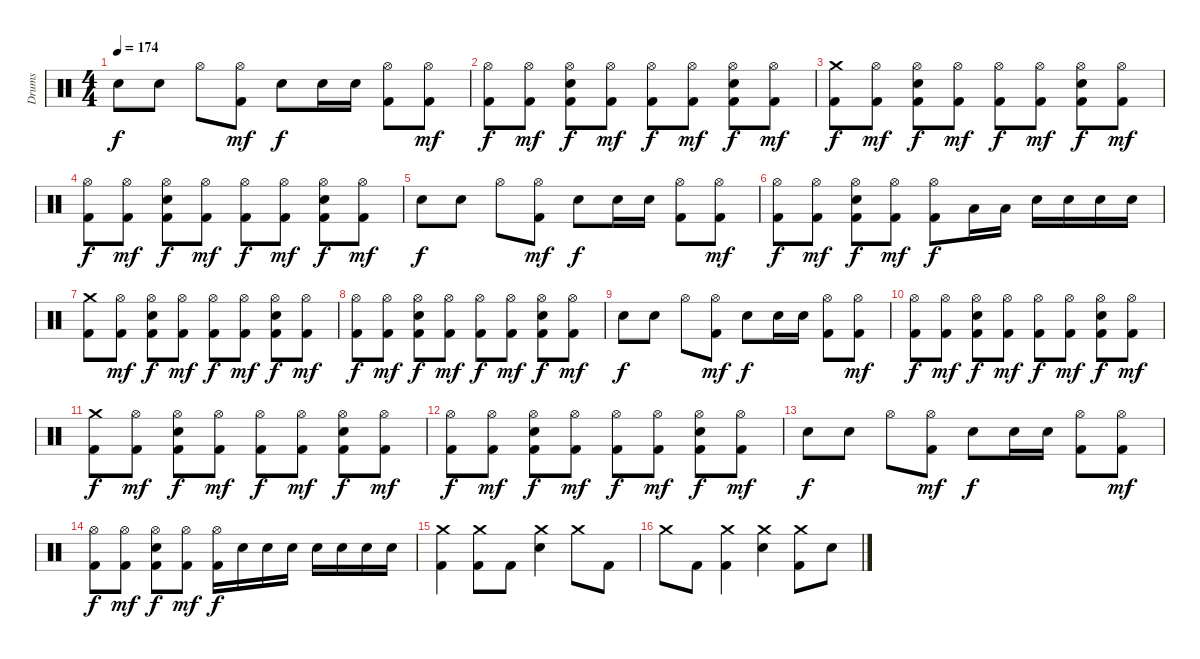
\track ("Drums" "Drums") {instrument percussion}
\staff {score}
\articulation defaults
\ts (4 4)
\tempo 174
\clef neutral
\ks c "Electric Snare (hit)".8{dy f} "Electric Snare (hit)".8 "Hi-Hat (open)".8
("Hi-Hat (open)" "Kick (hit) 2").8{dy mf} "Electric Snare (hit)".8{dy f} "Electric Snare (hit)".16 "Electric Snare (hit)".16 ("Hi-Hat (open)" "Kick (hit) 2").8 ("Hi-Hat (open)" "Kick (hit) 2").8{dy mf} |
("Hi-Hat (open)" "Kick (hit) 2").8{dy f} ("Hi-Hat (open)" "Kick (hit) 2").8{dy mf} ("Hi-Hat (open)" "Electric Snare (hit)" "Kick (hit) 2").8{dy f} ("Hi-Hat (open)" "Kick (hit) 2").8{dy mf} ("Hi-Hat (open)" "Kick (hit) 2").8{dy f} ("Hi-Hat (open)" "Kick (hit) 2").8{dy mf} ("Hi-Hat (open)" "Electric Snare (hit)" "Kick (hit) 2").8{dy f} ("Hi-Hat (open)" "Kick (hit) 2").8{dy mf} |
("Crash medium (hit)" "Kick (hit) 2").8{dy f} ("Hi-Hat (open)" "Kick (hit) 2").8{dy mf} ("Hi-Hat (open)" "Electric Snare (hit)" "Kick (hit) 2").8{dy f} ("Hi-Hat (open)" "Kick (hit) 2").8{dy mf} ("Hi-Hat (open)" "Kick (hit) 2").8{dy f} ("Hi-Hat (open)" "Kick (hit) 2").8{dy mf} ("Hi-Hat (open)" "Electric Snare (hit)" "Kick (hit) 2").8{dy f} ("Hi-Hat (open)" "Kick (hit) 2").8{dy mf} |
("Hi-Hat (open)" "Kick (hit) 2").8{dy f} ("Hi-Hat (open)" "Kick (hit) 2").8{dy mf} ("Hi-Hat (open)" "Electric Snare (hit)" "Kick (hit) 2").8{dy f} ("Hi-Hat (open)" "Kick (hit) 2").8{dy mf} ("Hi-Hat (open)" "Kick (hit) 2").8{dy f} ("Hi-Hat (open)" "Kick (hit) 2").8{dy mf} ("Hi-Hat (open)" "Electric Snare (hit)" "Kick (hit) 2").8{dy f} ("Hi-Hat (open)" "Kick (hit) 2").8{dy mf} |
"Electric Snare (hit)".8{dy f} "Electric Snare (hit)".8 "Hi-Hat (open)".8 ("Hi-Hat (open)" "Kick (hit) 2").8{dy mf} "Electric Snare (hit)".8{dy f} "Electric Snare (hit)".16 "Electric Snare (hit)".16 ("Hi-Hat (open)" "Kick (hit) 2").8 ("Hi-Hat (open)" "Kick (hit) 2").8{dy mf} |
("Hi-Hat (open)" "Kick (hit) 2").8{dy f} ("Hi-Hat (open)" "Kick (hit) 2").8{dy mf} ("Hi-Hat (open)" "Electric Snare (hit)" "Kick (hit) 2").8{dy f} ("Hi-Hat (open)" "Kick (hit) 2").8{dy mf} ("Hi-Hat (open)" "Kick (hit) 2").8{dy f} "Low Tom (hit)".16 "Low Tom (hit)".16 "Electric Snare (hit)".16 "Electric Snare (hit)".16 "Electric Snare (hit)".16 "Electric Snare (hit)".16 |
("Crash medium (hit)" "Kick (hit) 2").8 ("Hi-Hat (open)" "Kick (hit) 2").8{dy mf} ("Hi-Hat (open)" "Electric Snare (hit)" "Kick (hit) 2").8{dy f} ("Hi-Hat (open)" "Kick (hit) 2").8{dy mf} ("Hi-Hat (open)" "Kick (hit) 2").8{dy f} ("Hi-Hat (open)" "Kick (hit) 2").8{dy mf} ("Hi-Hat (open)" "Electric Snare (hit)" "Kick (hit) 2").8{dy f} ("Hi-Hat (open)" "Kick (hit) 2").8{dy mf} |
("Hi-Hat (open)" "Kick (hit) 2").8{dy f} ("Hi-Hat (open)" "Kick (hit) 2").8{dy mf} ("Hi-Hat (open)" "Electric Snare (hit)" "Kick (hit) 2").8{dy f} ("Hi-Hat (open)" "Kick (hit) 2").8{dy mf} ("Hi-Hat (open)" "Kick (hit) 2").8{dy f} ("Hi-Hat (open)" "Kick (hit) 2").8{dy mf} ("Hi-Hat (open)" "Electric Snare (hit)" "Kick (hit) 2").8{dy f} ("Hi-Hat (open)" "Kick (hit) 2").8{dy mf} |
"Electric Snare (hit)".8{dy f} "Electric Snare (hit)".8 "Hi-Hat (open)".8 ("Hi-Hat (open)" "Kick (hit) 2").8{dy mf} "Electric Snare (hit)".8{dy f} "Electric Snare (hit)".16 "Electric Snare (hit)".16 ("Hi-Hat (open)" "Kick (hit) 2").8 ("Hi-Hat (open)" "Kick (hit) 2").8{dy mf} |
("Hi-Hat (open)" "Kick (hit) 2").8{dy f} ("Hi-Hat (open)" "Kick (hit) 2").8{dy mf} ("Hi-Hat (open)" "Electric Snare (hit)" "Kick (hit) 2").8{dy f} ("Hi-Hat (open)" "Kick (hit) 2").8{dy mf} ("Hi-Hat (open)" "Kick (hit) 2").8{dy f} ("Hi-Hat (open)" "Kick (hit) 2").8{dy mf} ("Hi-Hat (open)" "Electric Snare (hit)" "Kick (hit) 2").8{dy f} ("Hi-Hat (open)" "Kick (hit) 2").8{dy mf} |
("Crash medium (hit)" "Kick (hit) 2").8{dy f} ("Hi-Hat (open)" "Kick (hit) 2").8{dy mf} ("Hi-Hat (open)" "Electric Snare (hit)" "Kick (hit) 2").8{dy f} ("Hi-Hat (open)" "Kick (hit) 2").8{dy mf} ("Hi-Hat (open)" "Kick (hit) 2").8{dy f} ("Hi-Hat (open)" "Kick (hit) 2").8{dy mf} ("Hi-Hat (open)" "Electric Snare (hit)" "Kick (hit) 2").8{dy f} ("Hi-Hat (open)" "Kick (hit) 2").8{dy mf} |
("Hi-Hat (open)" "Kick (hit) 2").8{dy f} ("Hi-Hat (open)" "Kick (hit) 2").8{dy mf} ("Hi-Hat (open)" "Electric Snare (hit)" "Kick (hit) 2").8{dy f} ("Hi-Hat (open)" "Kick (hit) 2").8{dy mf} ("Hi-Hat (open)" "Kick (hit) 2").8{dy f} ("Hi-Hat (open)" "Kick (hit) 2").8{dy mf} ("Hi-Hat (open)" "Electric Snare (hit)" "Kick (hit) 2").8{dy f} ("Hi-Hat (open)" "Kick (hit) 2").8{dy mf} |
"Electric Snare (hit)".8{dy f} "Electric Snare (hit)".8 "Hi-Hat (open)".8 ("Hi-Hat (open)" "Kick (hit) 2").8{dy mf} "Electric Snare (hit)".8{dy f} "Electric Snare (hit)".16 "Electric Snare (hit)".16 ("Hi-Hat (open)" "Kick (hit) 2").8 ("Hi-Hat (open)" "Kick (hit) 2").8{dy mf} |
("Hi-Hat (open)" "Kick (hit) 2").8{dy f} ("Hi-Hat (open)" "Kick (hit) 2").8{dy mf} ("Hi-Hat (open)" "Electric Snare (hit)" "Kick (hit) 2").8{dy f} ("Hi-Hat (open)" "Kick (hit) 2").8{dy mf} ("Hi-Hat (open)" "Kick (hit) 2").16{dy f} "Electric Snare (hit)".16 "Electric Snare (hit)".16 "Electric Snare (hit)".16 "Electric Snare (hit)".16 "Electric Snare (hit)".16 "Electric Snare (hit)".16 "Electric Snare (hit)".16 |
("Crash medium (hit)" "Kick (hit) 2").4 ("Crash medium (hit)" "Kick (hit) 2").8 "Kick (hit) 2".8 ("Crash medium (hit)" "Electric Snare (hit)").4 "Crash medium (hit)".8 "Kick (hit) 2".8 |
"Crash medium (hit)".8 "Kick (hit) 2".8 ("Crash medium (hit)" "Kick (hit) 2").4 ("Crash medium (hit)" "Electric Snare (hit)").4 ("Crash medium (hit)" "Kick (hit) 2").8 "Electric Snare (hit)".8
